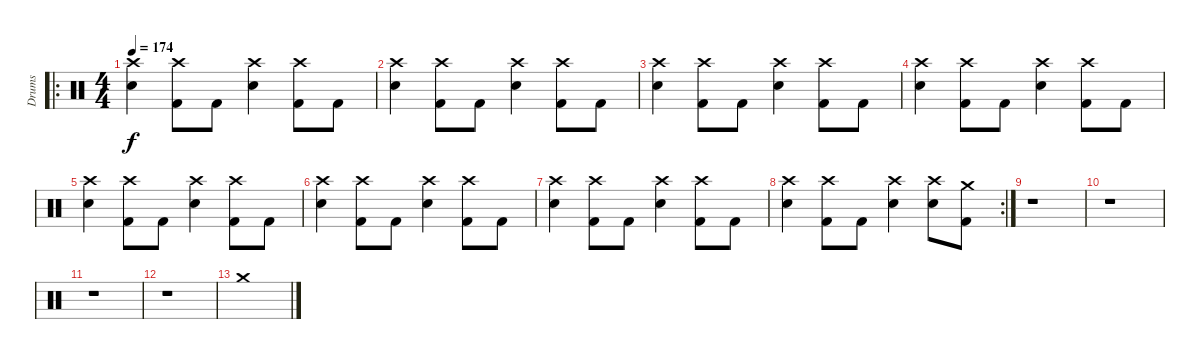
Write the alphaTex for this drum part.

\track ("Drums" "Drums") {instrument percussion}
\staff {score}
\articulation defaults
\ro
\ts (4 4)
\tempo 174
\clef neutral
\ks c
("Crash high (hit)" "Snare (hit) 2").4{dy f} ("Crash high (hit)" "Kick (hit) 2").8 "Kick (hit) 2".8 ("Crash high (hit)" "Snare (hit) 2").4 ("Crash high (hit)" "Kick (hit) 2").8 "Kick (hit) 2".8 |
("Crash high (hit)" "Snare (hit) 2").4 ("Crash high (hit)" "Kick (hit) 2").8 "Kick (hit) 2".8 ("Crash high (hit)" "Snare (hit) 2").4 ("Crash high (hit)" "Kick (hit) 2").8 "Kick (hit) 2".8 |
("Crash high (hit)" "Snare (hit) 2").4 ("Crash high (hit)" "Kick (hit) 2").8 "Kick (hit) 2".8 ("Crash high (hit)" "Snare (hit) 2").4 ("Crash high (hit)" "Kick (hit) 2").8 "Kick (hit) 2".8 |
("Crash high (hit)" "Snare (hit) 2").4 ("Crash high (hit)" "Kick (hit) 2").8 "Kick (hit) 2".8 ("Crash high (hit)" "Snare (hit) 2").4 ("Crash high (hit)" "Kick (hit) 2").8 "Kick (hit) 2".8 |
("Crash high (hit)" "Snare (hit) 2").4 ("Crash high (hit)" "Kick (hit) 2").8 "Kick (hit) 2".8 ("Crash high (hit)" "Snare (hit) 2").4 ("Crash high (hit)" "Kick (hit) 2").8 "Kick (hit) 2".8 |
("Crash high (hit)" "Snare (hit) 2").4 ("Crash high (hit)" "Kick (hit) 2").8 "Kick (hit) 2".8 ("Crash high (hit)" "Snare (hit) 2").4 ("Crash high (hit)" "Kick (hit) 2").8 "Kick (hit) 2".8 |
("Crash high (hit)" "Snare (hit) 2").4 ("Crash high (hit)" "Kick (hit) 2").8 "Kick (hit) 2".8 ("Crash high (hit)" "Snare (hit) 2").4 ("Crash high (hit)" "Kick (hit) 2").8 "Kick (hit) 2".8 |
\rc 2
("Crash high (hit)" "Snare (hit) 2").4 ("Crash high (hit)" "Kick (hit) 2").8 "Kick (hit) 2".8 ("Crash high (hit)" "Snare (hit) 2").4 ("Crash high (hit)" "Snare (hit) 2").8 ("Crash medium (hit)" "Kick (hit) 2").8 |
r.1 |
r.1 |
r.1 |
r.1 |
"Crash medium (hit)".1
